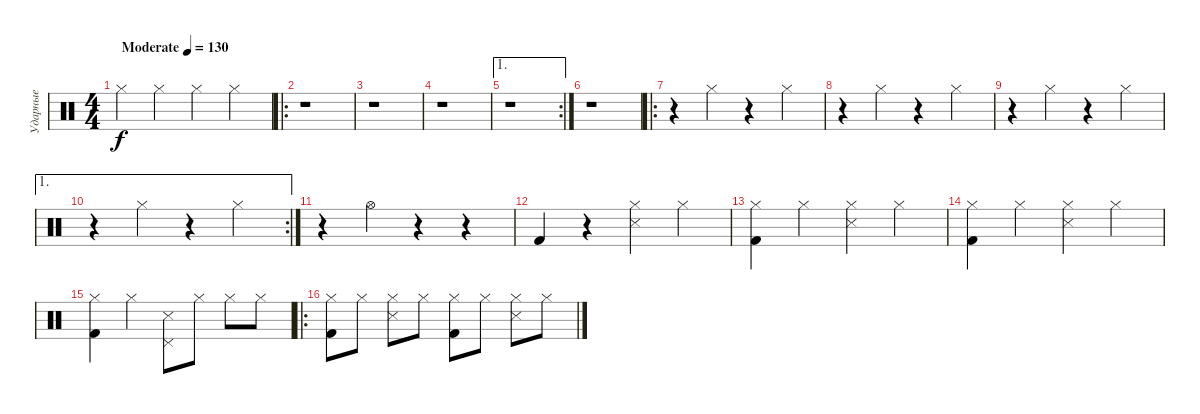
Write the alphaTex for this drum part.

\track ("Ударные" "Ударные") {instrument percussion}
\staff {score}
\articulation defaults
\ts (4 4)
\tempo (130 "Moderate")
\clef neutral
\ks c "Hi-Hat (closed)".4{dy f} "Hi-Hat (closed)".4 "Hi-Hat (closed)".4 "Hi-Hat (closed)".4
|
\ro
r.1 |
r.1 |
r.1 |
\ae 1
\rc 2
r.1 |
r.1 |
\ro
r.4 "Hi-Hat (closed)".4 r.4 "Hi-Hat (closed)".4 |
r.4 "Hi-Hat (closed)".4 r.4 "Hi-Hat (closed)".4 |
r.4 "Hi-Hat (closed)".4 r.4 "Hi-Hat (closed)".4 |
\ae 1
\rc 2
r.4 "Hi-Hat (closed)".4 r.4 "Hi-Hat (closed)".4 |
r.4 "Hi-Hat (open)".4 r.4 r.4 |
"Kick (hit) 2".4 r.4 ("Snare (side stick) 3" "Hi-Hat (closed)").4 "Hi-Hat (closed)".4 |
("Kick (hit) 2" "Hi-Hat (closed)").4 "Hi-Hat (closed)".4 ("Snare (side stick) 3" "Hi-Hat (closed)").4 "Hi-Hat (closed)".4 |
("Kick (hit) 2" "Hi-Hat (closed)").4 "Hi-Hat (closed)".4 ("Snare (side stick) 3" "Hi-Hat (closed)").4 "Hi-Hat (closed)".4 |
("Kick (hit) 2" "Hi-Hat (closed)").4 "Hi-Hat (closed)".4 ("Snare (side stick) 3" "Pedal Hi-Hat (hit)").8 "Hi-Hat (closed)".8 "Hi-Hat (closed)".8 "Hi-Hat (closed)".8 |
\ro
("Kick (hit) 2" "Hi-Hat (closed)").8 "Hi-Hat (closed)".8 ("Snare (side stick) 3" "Hi-Hat (closed)").8 "Hi-Hat (closed)".8 ("Kick (hit) 2" "Hi-Hat (closed)").8 "Hi-Hat (closed)".8 ("Snare (side stick) 3" "Hi-Hat (closed)").8 "Hi-Hat (closed)".8
